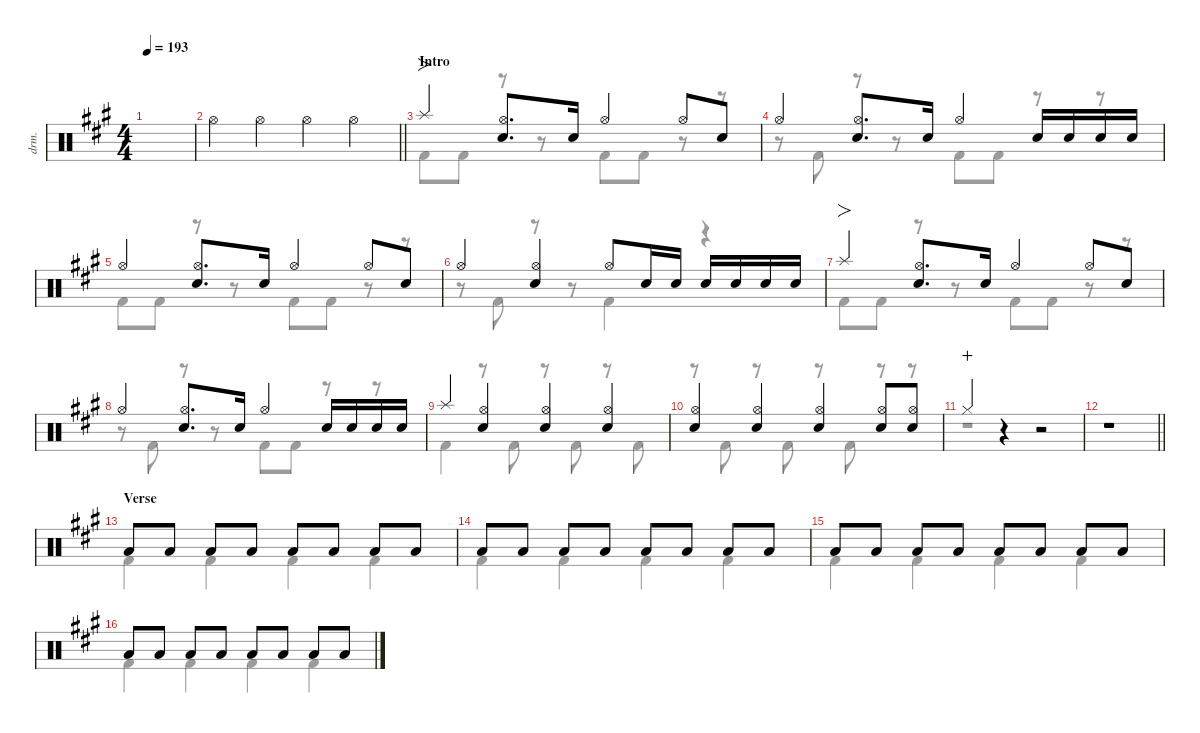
\defaultSystemsLayout 4
\hideDynamics
\bracketExtendMode nobrackets
\track ("伊地知虹夏" "drm.") {instrument percussion}
\staff {score}
\articulation defaults
\voice
\ts (4 4)
\tempo 193
\clef neutral
\ks a
|
\barLineRight lightlight "Hi-Hat (open)"{acc forcenatural}.4{beam Down} "Hi-Hat (open)"{acc forcenatural}.4{beam Down} "Hi-Hat (open)"{acc forcenatural}.4{beam Down} "Hi-Hat (open)"{acc forcenatural}.4{beam Down}
|
\section ("" "Intro")
"Splash (hit)"{acc forcenatural}.4{fo beam Up} ("Snare (hit) 2"{acc forcenatural} "Hi-Hat (open)"{acc forcenatural}).8{d beam Up} "Snare (hit) 2"{acc forcenatural}.16{beam Up} "Hi-Hat (open)"{acc forcenatural}.4{beam Up} "Hi-Hat (open)"{acc forcenatural}.8{beam Up} "Snare (hit) 2"{acc forcenatural}.8{beam Up} |
"Hi-Hat (open)"{acc forcenatural}.4{beam Up} ("Hi-Hat (open)"{acc forcenatural} "Snare (hit) 2"{acc forcenatural}).8{d beam Up} "Snare (hit) 2"{acc forcenatural}.16{beam Up} "Hi-Hat (open)"{acc forcenatural}.4{beam Up} "Snare (hit) 2"{acc forcenatural}.16{beam Up} "Snare (hit) 2"{acc forcenatural}.16{beam Up} "Snare (hit) 2"{acc forcenatural}.16{beam Up} "Snare (hit) 2"{acc forcenatural}.16{beam Up} |
"Hi-Hat (open)"{acc forcenatural}.4{beam Up} ("Hi-Hat (open)"{acc forcenatural} "Snare (hit) 2"{acc forcenatural}).8{d beam Up} "Snare (hit) 2"{acc forcenatural}.16{beam Up} "Hi-Hat (open)"{acc forcenatural}.4{beam Up} "Hi-Hat (open)"{acc forcenatural}.8{beam Up} "Snare (hit) 2"{acc forcenatural}.8{beam Up} |
"Hi-Hat (open)"{acc forcenatural}.4{beam Up} ("Hi-Hat (open)"{acc forcenatural} "Snare (hit) 2"{acc forcenatural}).4{beam Up} "Hi-Hat (open)"{acc forcenatural}.8{beam Up} "Snare (hit) 2"{acc forcenatural}.16{beam Up} "Snare (hit) 2"{acc forcenatural}.16{beam Up} "Snare (hit) 2"{acc forcenatural}.16{beam Up} "Snare (hit) 2"{acc forcenatural}.16{beam Up} "Snare (hit) 2"{acc forcenatural}.16{beam Up} "Snare (hit) 2"{acc forcenatural}.16{beam Up} |
"Splash (hit)"{acc forcenatural}.4{fo beam Up} ("Snare (hit) 2"{acc forcenatural} "Hi-Hat (open)"{acc forcenatural}).8{d beam Up} "Snare (hit) 2"{acc forcenatural}.16{beam Up} "Hi-Hat (open)"{acc forcenatural}.4{beam Up} "Hi-Hat (open)"{acc forcenatural}.8{beam Up} "Snare (hit) 2"{acc forcenatural}.8{beam Up} |
"Hi-Hat (open)"{acc forcenatural}.4{beam Up} ("Hi-Hat (open)"{acc forcenatural} "Snare (hit) 2"{acc forcenatural}).8{d beam Up} "Snare (hit) 2"{acc forcenatural}.16{beam Up} "Hi-Hat (open)"{acc forcenatural}.4{beam Up} "Snare (hit) 2"{acc forcenatural}.16{beam Up} "Snare (hit) 2"{acc forcenatural}.16{beam Up} "Snare (hit) 2"{acc forcenatural}.16{beam Up} "Snare (hit) 2"{acc forcenatural}.16{beam Up} |
"Splash (hit)"{acc forcenatural}.4{beam Up} ("Hi-Hat (open)"{acc forcenatural} "Snare (hit) 2"{acc forcenatural}).4{beam Up} ("Hi-Hat (open)"{acc forcenatural} "Snare (hit) 2"{acc forcenatural}).4{beam Up} ("Hi-Hat (open)"{acc forcenatural} "Snare (hit) 2"{acc forcenatural}).4{beam Up} |
("Hi-Hat (open)"{acc forcenatural} "Snare (hit) 2"{acc forcenatural}).4{beam Up} ("Hi-Hat (open)"{acc forcenatural} "Snare (hit) 2"{acc forcenatural}).4{beam Up} ("Hi-Hat (open)"{acc forcenatural} "Snare (hit) 2"{acc forcenatural}).4{beam Up} ("Hi-Hat (open)"{acc forcenatural} "Snare (hit) 2"{acc forcenatural}).8{beam Up} ("Hi-Hat (open)"{acc forcenatural} "Snare (hit) 2"{acc forcenatural}).8{beam Up} |
"Hi-Hat (closed)"{acc forcenatural}.4{wahc beam Up} r.4{beam Up} r.2{beam Up} |
\barLineRight lightlight
r.1{beam Up} |
\section ("" "Verse")
"Low Tom (hit)"{acc forcenatural}.8{beam Up} "Low Tom (hit)"{acc forcenatural}.8{beam Up} "Low Tom (hit)"{acc forcenatural}.8{beam Up} "Low Tom (hit)"{acc forcenatural}.8{beam Up} "Low Tom (hit)"{acc forcenatural}.8{beam Up} "Low Tom (hit)"{acc forcenatural}.8{beam Up} "Low Tom (hit)"{acc forcenatural}.8{beam Up} "Low Tom (hit)"{acc forcenatural}.8{beam Up} |
"Low Tom (hit)"{acc forcenatural}.8{beam Up} "Low Tom (hit)"{acc forcenatural}.8{beam Up} "Low Tom (hit)"{acc forcenatural}.8{beam Up} "Low Tom (hit)"{acc forcenatural}.8{beam Up} "Low Tom (hit)"{acc forcenatural}.8{beam Up} "Low Tom (hit)"{acc forcenatural}.8{beam Up} "Low Tom (hit)"{acc forcenatural}.8{beam Up} "Low Tom (hit)"{acc forcenatural}.8{beam Up} |
"Low Tom (hit)"{acc forcenatural}.8{beam Up} "Low Tom (hit)"{acc forcenatural}.8{beam Up} "Low Tom (hit)"{acc forcenatural}.8{beam Up} "Low Tom (hit)"{acc forcenatural}.8{beam Up} "Low Tom (hit)"{acc forcenatural}.8{beam Up} "Low Tom (hit)"{acc forcenatural}.8{beam Up} "Low Tom (hit)"{acc forcenatural}.8{beam Up} "Low Tom (hit)"{acc forcenatural}.8{beam Up} |
"Low Tom (hit)"{acc forcenatural}.8{beam Up} "Low Tom (hit)"{acc forcenatural}.8{beam Up} "Low Tom (hit)"{acc forcenatural}.8{beam Up} "Low Tom (hit)"{acc forcenatural}.8{beam Up} "Low Tom (hit)"{acc forcenatural}.8{beam Up} "Low Tom (hit)"{acc forcenatural}.8{beam Up} "Low Tom (hit)"{acc forcenatural}.8{beam Up} "Low Tom (hit)"{acc forcenatural}.8{beam Up}
\voice
\clef neutral
\ottava regular
\simile none
\ks a
|
\barLineRight lightlight
|
"Kick (hit) 2"{acc forcenatural}.8{beam Down} "Kick (hit) 2"{acc forcenatural}.8{beam Down} r.8{beam Down} r.8{beam Down} "Kick (hit) 2"{acc forcenatural}.8{beam Down} "Kick (hit) 2"{acc forcenatural}.8{beam Down} r.8{beam Down} r.8{beam Down} |
r.8{beam Down} "Kick (hit) 2"{acc forcenatural}.8{beam Down} r.8{beam Down} r.8{beam Down} "Kick (hit) 2"{acc forcenatural}.8{beam Down} "Kick (hit) 2"{acc forcenatural}.8{beam Down} r.8{beam Down} r.8{beam Down} |
"Kick (hit) 2"{acc forcenatural}.8{beam Down} "Kick (hit) 2"{acc forcenatural}.8{beam Down} r.8{beam Down} r.8{beam Down} "Kick (hit) 2"{acc forcenatural}.8{beam Down} "Kick (hit) 2"{acc forcenatural}.8{beam Down} r.8{beam Down} r.8{beam Down} |
r.8{beam Down} "Kick (hit) 2"{acc forcenatural}.8{beam Down} r.8{beam Down} r.8{beam Down} "Kick (hit) 2"{acc forcenatural}.4{beam Down} r.4{beam Down} |
"Kick (hit) 2"{acc forcenatural}.8{beam Down} "Kick (hit) 2"{acc forcenatural}.8{beam Down} r.8{beam Down} r.8{beam Down} "Kick (hit) 2"{acc forcenatural}.8{beam Down} "Kick (hit) 2"{acc forcenatural}.8{beam Down} r.8{beam Down} r.8{beam Down} |
r.8{beam Down} "Kick (hit) 2"{acc forcenatural}.8{beam Down} r.8{beam Down} r.8{beam Down} "Kick (hit) 2"{acc forcenatural}.8{beam Down} "Kick (hit) 2"{acc forcenatural}.8{beam Down} r.8{beam Down} r.8{beam Down} |
"Kick (hit) 2"{acc forcenatural}.4{beam Down} r.8{beam Down} "Kick (hit) 2"{acc forcenatural}.8{beam Down} r.8{beam Down} "Kick (hit) 2"{acc forcenatural}.8{beam Down} r.8{beam Down} "Kick (hit) 2"{acc forcenatural}.8{beam Down} |
r.8{beam Down} "Kick (hit) 2"{acc forcenatural}.8{beam Down} r.8{beam Down} "Kick (hit) 2"{acc forcenatural}.8{beam Down} r.8{beam Down} "Kick (hit) 2"{acc forcenatural}.8{beam Down} r.8{beam Down} r.8{beam Down} |
r.1{beam Down} |
\barLineRight lightlight
r.1{beam Down} |
"Kick (hit) 2"{acc forcenatural}.4{beam Down} "Kick (hit) 2"{acc forcenatural}.4{beam Down} "Kick (hit) 2"{acc forcenatural}.4{beam Down} "Kick (hit) 2"{acc forcenatural}.4{beam Down} |
"Kick (hit) 2"{acc forcenatural}.4{beam Down} "Kick (hit) 2"{acc forcenatural}.4{beam Down} "Kick (hit) 2"{acc forcenatural}.4{beam Down} "Kick (hit) 2"{acc forcenatural}.4{beam Down} |
"Kick (hit) 2"{acc forcenatural}.4{beam Down} "Kick (hit) 2"{acc forcenatural}.4{beam Down} "Kick (hit) 2"{acc forcenatural}.4{beam Down} "Kick (hit) 2"{acc forcenatural}.4{beam Down} |
"Kick (hit) 2"{acc forcenatural}.4{beam Down} "Kick (hit) 2"{acc forcenatural}.4{beam Down} "Kick (hit) 2"{acc forcenatural}.4{beam Down} "Kick (hit) 2"{acc forcenatural}.4{beam Down}
